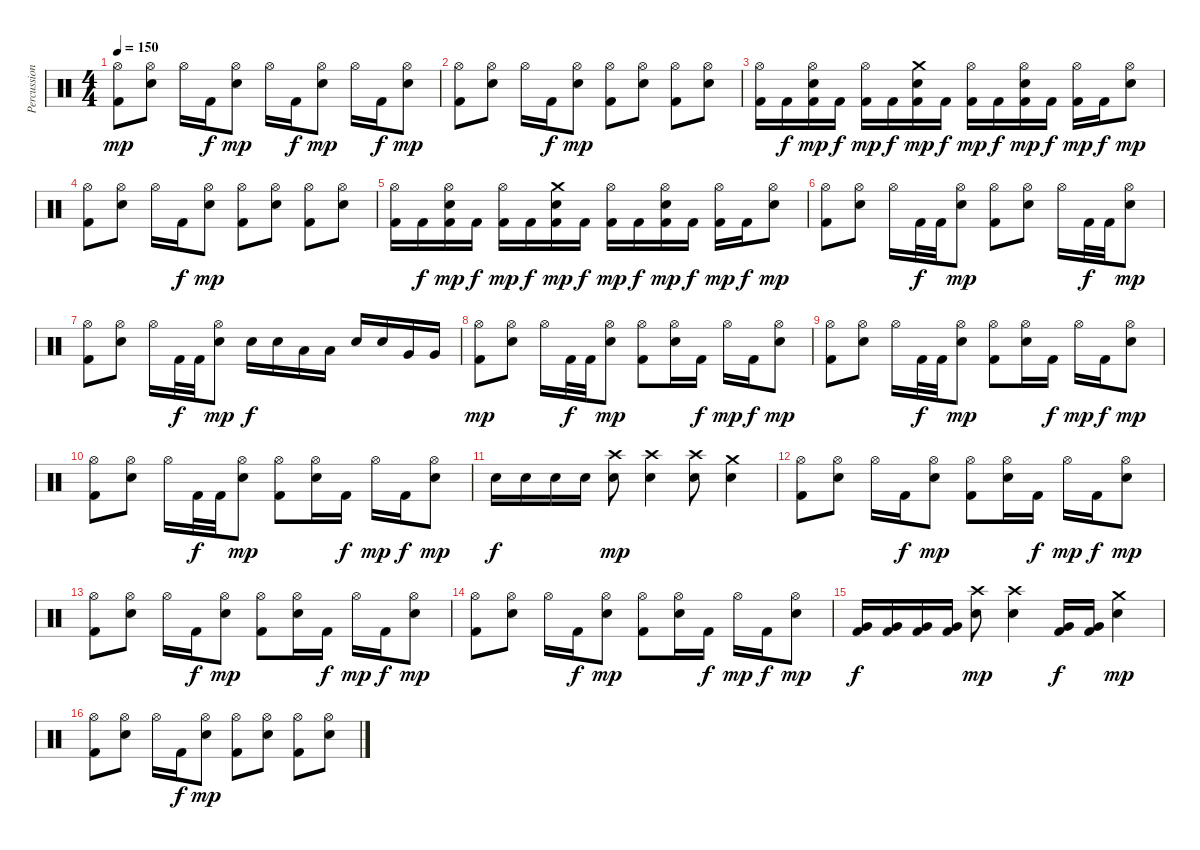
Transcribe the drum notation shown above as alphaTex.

\track ("Percussion" "Percussion") {instrument percussion}
\staff {score}
\articulation defaults
\ts (4 4)
\tempo 150
\clef neutral
\ks c
("Hi-Hat (open)" "Kick (hit) 2").8{dy mp} ("Snare (hit) 2" "Hi-Hat (open)").8 "Hi-Hat (open)".16 "Kick (hit) 2".16{dy f} ("Snare (hit) 2" "Hi-Hat (open)").8{dy mp} "Hi-Hat (open)".16 "Kick (hit) 2".16{dy f} ("Snare (hit) 2" "Hi-Hat (open)").8{dy mp} "Hi-Hat (open)".16 "Kick (hit) 2".16{dy f} ("Snare (hit) 2" "Hi-Hat (open)").8{dy mp} |
("Hi-Hat (open)" "Kick (hit) 2").8 ("Snare (hit) 2" "Hi-Hat (open)").8 "Hi-Hat (open)".16 "Kick (hit) 2".16{dy f} ("Snare (hit) 2" "Hi-Hat (open)").8{dy mp} ("Hi-Hat (open)" "Kick (hit) 2").8 ("Snare (hit) 2" "Hi-Hat (open)").8 ("Hi-Hat (open)" "Kick (hit) 2").8 ("Snare (hit) 2" "Hi-Hat (open)").8 |
("Hi-Hat (open)" "Kick (hit) 2").16 "Kick (hit) 2".16{dy f} ("Snare (hit) 2" "Hi-Hat (open)" "Kick (hit) 2").16{dy mp} "Kick (hit) 2".16{dy f} ("Hi-Hat (open)" "Kick (hit) 2").16{dy mp} "Kick (hit) 2".16{dy f} ("Crash medium (hit)" "Snare (hit) 2" "Kick (hit) 2").16{dy mp} "Kick (hit) 2".16{dy f} ("Hi-Hat (open)" "Kick (hit) 2").16{dy mp} "Kick (hit) 2".16{dy f} ("Snare (hit) 2" "Hi-Hat (open)" "Kick (hit) 2").16{dy mp} "Kick (hit) 2".16{dy f} ("Hi-Hat (open)" "Kick (hit) 2").16{dy mp} "Kick (hit) 2".16{dy f} ("Snare (hit) 2" "Hi-Hat (open)").8{dy mp} |
("Hi-Hat (open)" "Kick (hit) 2").8 ("Snare (hit) 2" "Hi-Hat (open)").8 "Hi-Hat (open)".16 "Kick (hit) 2".16{dy f} ("Snare (hit) 2" "Hi-Hat (open)").8{dy mp} ("Hi-Hat (open)" "Kick (hit) 2").8 ("Snare (hit) 2" "Hi-Hat (open)").8 ("Hi-Hat (open)" "Kick (hit) 2").8 ("Snare (hit) 2" "Hi-Hat (open)").8 |
("Hi-Hat (open)" "Kick (hit) 2").16 "Kick (hit) 2".16{dy f} ("Snare (hit) 2" "Hi-Hat (open)" "Kick (hit) 2").16{dy mp} "Kick (hit) 2".16{dy f} ("Hi-Hat (open)" "Kick (hit) 2").16{dy mp} "Kick (hit) 2".16{dy f} ("Crash medium (hit)" "Snare (hit) 2" "Kick (hit) 2").16{dy mp} "Kick (hit) 2".16{dy f} ("Hi-Hat (open)" "Kick (hit) 2").16{dy mp} "Kick (hit) 2".16{dy f} ("Snare (hit) 2" "Hi-Hat (open)" "Kick (hit) 2").16{dy mp} "Kick (hit) 2".16{dy f} ("Hi-Hat (open)" "Kick (hit) 2").16{dy mp} "Kick (hit) 2".16{dy f} ("Snare (hit) 2" "Hi-Hat (open)").8{dy mp} |
("Hi-Hat (open)" "Kick (hit) 2").8 ("Snare (hit) 2" "Hi-Hat (open)").8 "Hi-Hat (open)".16 "Kick (hit) 2".32{dy f} "Kick (hit) 2".32 ("Snare (hit) 2" "Hi-Hat (open)").8{dy mp} ("Hi-Hat (open)" "Kick (hit) 2").8 ("Snare (hit) 2" "Hi-Hat (open)").8 "Hi-Hat (open)".16 "Kick (hit) 2".32{dy f} "Kick (hit) 2".32 ("Snare (hit) 2" "Hi-Hat (open)").8{dy mp} |
("Hi-Hat (open)" "Kick (hit) 2").8 ("Snare (hit) 2" "Hi-Hat (open)").8 "Hi-Hat (open)".16 "Kick (hit) 2".32{dy f} "Kick (hit) 2".32 ("Snare (hit) 2" "Hi-Hat (open)").8{dy mp} "Snare (hit) 2".16{dy f} "Snare (hit) 2".16 "Low Tom (hit)".16 "Low Tom (hit)".16 "Snare (hit) 2".16 "Snare (hit) 2".16 "Very Low Tom (hit)".16 "Very Low Tom (hit)".16 |
("Hi-Hat (open)" "Kick (hit) 2").8{dy mp} ("Snare (hit) 2" "Hi-Hat (open)").8 "Hi-Hat (open)".16 "Kick (hit) 2".32{dy f} "Kick (hit) 2".32 ("Snare (hit) 2" "Hi-Hat (open)").8{dy mp} ("Hi-Hat (open)" "Kick (hit) 2").8 ("Snare (hit) 2" "Hi-Hat (open)").16 "Kick (hit) 2".16{dy f} "Hi-Hat (open)".16{dy mp} "Kick (hit) 2".16{dy f} ("Snare (hit) 2" "Hi-Hat (open)").8{dy mp} |
("Hi-Hat (open)" "Kick (hit) 2").8 ("Snare (hit) 2" "Hi-Hat (open)").8 "Hi-Hat (open)".16 "Kick (hit) 2".32{dy f} "Kick (hit) 2".32 ("Snare (hit) 2" "Hi-Hat (open)").8{dy mp} ("Hi-Hat (open)" "Kick (hit) 2").8 ("Snare (hit) 2" "Hi-Hat (open)").16 "Kick (hit) 2".16{dy f} "Hi-Hat (open)".16{dy mp} "Kick (hit) 2".16{dy f} ("Snare (hit) 2" "Hi-Hat (open)").8{dy mp} |
("Hi-Hat (open)" "Kick (hit) 2").8 ("Snare (hit) 2" "Hi-Hat (open)").8 "Hi-Hat (open)".16 "Kick (hit) 2".32{dy f} "Kick (hit) 2".32 ("Snare (hit) 2" "Hi-Hat (open)").8{dy mp} ("Hi-Hat (open)" "Kick (hit) 2").8 ("Snare (hit) 2" "Hi-Hat (open)").16 "Kick (hit) 2".16{dy f} "Hi-Hat (open)".16{dy mp} "Kick (hit) 2".16{dy f} ("Snare (hit) 2" "Hi-Hat (open)").8{dy mp} |
"Snare (hit) 2".16{dy f} "Snare (hit) 2".16 "Snare (hit) 2".16 "Snare (hit) 2".16 ("Crash high (hit)" "Snare (hit) 2").8{dy mp} ("Crash high (hit)" "Snare (hit) 2").4 ("Crash high (hit)" "Snare (hit) 2").8 ("Crash medium (hit)" "Snare (hit) 2").4 |
("Hi-Hat (open)" "Kick (hit) 2").8 ("Snare (hit) 2" "Hi-Hat (open)").8 "Hi-Hat (open)".16 "Kick (hit) 2".16{dy f} ("Snare (hit) 2" "Hi-Hat (open)").8{dy mp} ("Hi-Hat (open)" "Kick (hit) 2").8 ("Snare (hit) 2" "Hi-Hat (open)").16 "Kick (hit) 2".16{dy f} "Hi-Hat (open)".16{dy mp} "Kick (hit) 2".16{dy f} ("Snare (hit) 2" "Hi-Hat (open)").8{dy mp} |
("Hi-Hat (open)" "Kick (hit) 2").8 ("Snare (hit) 2" "Hi-Hat (open)").8 "Hi-Hat (open)".16 "Kick (hit) 2".16{dy f} ("Snare (hit) 2" "Hi-Hat (open)").8{dy mp} ("Hi-Hat (open)" "Kick (hit) 2").8 ("Snare (hit) 2" "Hi-Hat (open)").16 "Kick (hit) 2".16{dy f} "Hi-Hat (open)".16{dy mp} "Kick (hit) 2".16{dy f} ("Snare (hit) 2" "Hi-Hat (open)").8{dy mp} |
("Hi-Hat (open)" "Kick (hit) 2").8 ("Snare (hit) 2" "Hi-Hat (open)").8 "Hi-Hat (open)".16 "Kick (hit) 2".16{dy f} ("Snare (hit) 2" "Hi-Hat (open)").8{dy mp} ("Hi-Hat (open)" "Kick (hit) 2").8 ("Snare (hit) 2" "Hi-Hat (open)").16 "Kick (hit) 2".16{dy f} "Hi-Hat (open)".16{dy mp} "Kick (hit) 2".16{dy f} ("Snare (hit) 2" "Hi-Hat (open)").8{dy mp} |
("Very Low Tom (hit)" "Kick (hit) 2").16{dy f} ("Very Low Tom (hit)" "Kick (hit) 2").16 ("Very Low Tom (hit)" "Kick (hit) 2").16 ("Very Low Tom (hit)" "Kick (hit) 2").16 ("Crash high (hit)" "Snare (hit) 2").8{dy mp} ("Crash high (hit)" "Snare (hit) 2").4 ("Very Low Tom (hit)" "Kick (hit) 2").16{dy f} ("Very Low Tom (hit)" "Kick (hit) 2").16 ("Crash medium (hit)" "Snare (hit) 2").4{dy mp} |
("Hi-Hat (open)" "Kick (hit) 2").8 ("Snare (hit) 2" "Hi-Hat (open)").8 "Hi-Hat (open)".16 "Kick (hit) 2".16{dy f} ("Snare (hit) 2" "Hi-Hat (open)").8{dy mp} ("Hi-Hat (open)" "Kick (hit) 2").8 ("Snare (hit) 2" "Hi-Hat (open)").8 ("Hi-Hat (open)" "Kick (hit) 2").8 ("Snare (hit) 2" "Hi-Hat (open)").8
